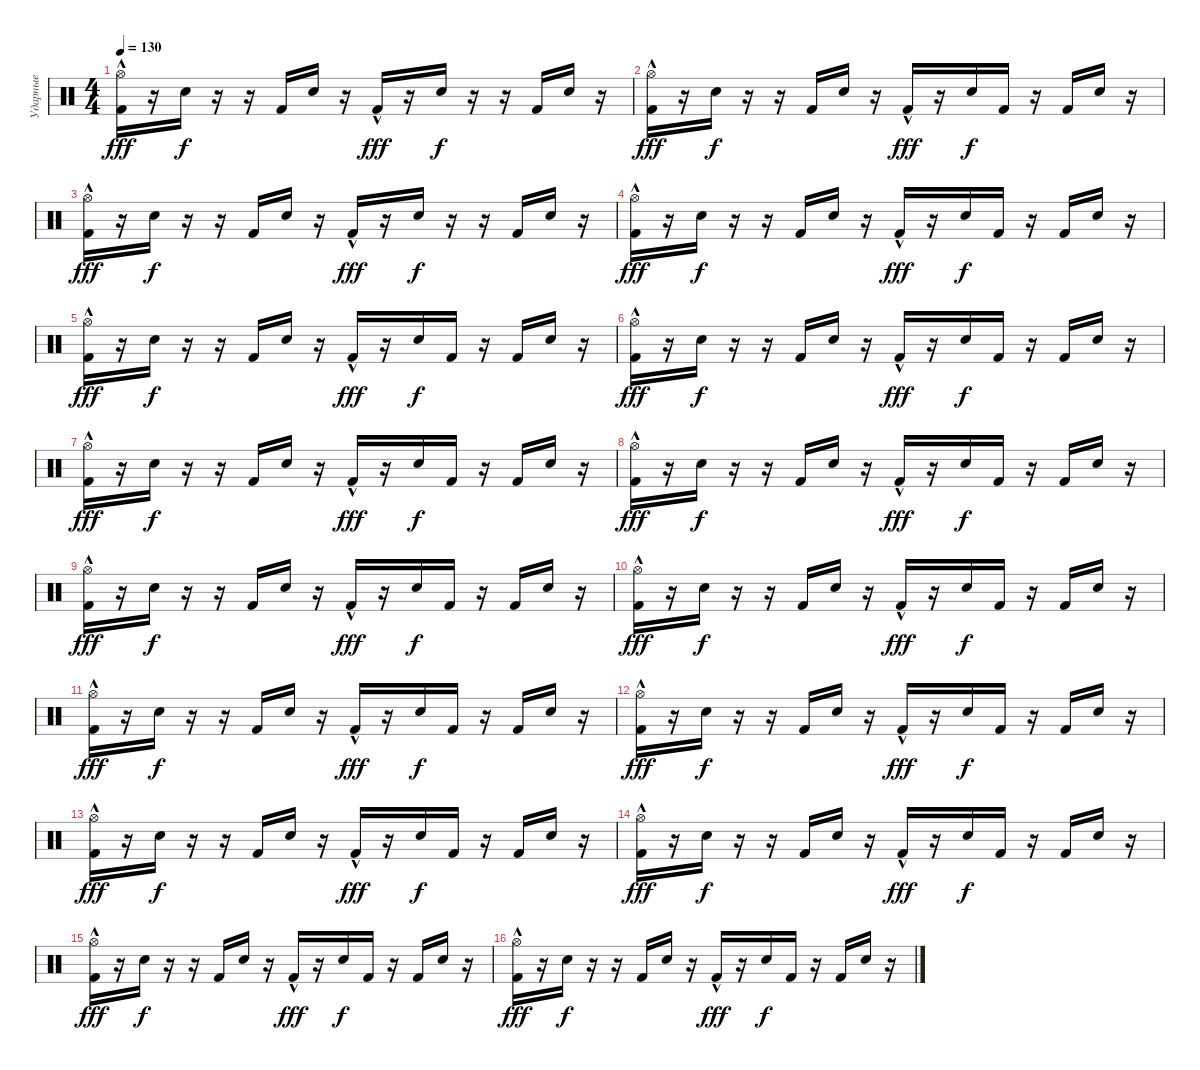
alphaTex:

\track ("Ударные" "Ударные") {instrument percussion}
\staff {score}
\articulation defaults
\ts (4 4)
\tempo 130
\clef neutral
\ks c
("Hi-Hat (open)" "Kick (hit) 2"{hac}).16{dy fff} r.16 "Electric Snare (hit)".16{dy f} r.16 r.16 "Kick (hit) 2".16 "Electric Snare (hit)".16 r.16 "Kick (hit) 2"{hac}.16{dy fff} r.16 "Electric Snare (hit)".16{dy f} r.16 r.16 "Kick (hit) 2".16 "Electric Snare (hit)".16 r.16 |
("Hi-Hat (open)" "Kick (hit) 2"{hac}).16{dy fff} r.16 "Electric Snare (hit)".16{dy f} r.16 r.16 "Kick (hit) 2".16 "Electric Snare (hit)".16 r.16 "Kick (hit) 2"{hac}.16{dy fff} r.16 "Electric Snare (hit)".16{dy f} "Kick (hit) 2".16 r.16 "Kick (hit) 2".16 "Electric Snare (hit)".16 r.16 |
("Hi-Hat (open)" "Kick (hit) 2"{hac}).16{dy fff} r.16 "Electric Snare (hit)".16{dy f} r.16 r.16 "Kick (hit) 2".16 "Electric Snare (hit)".16 r.16 "Kick (hit) 2"{hac}.16{dy fff} r.16 "Electric Snare (hit)".16{dy f} r.16 r.16 "Kick (hit) 2".16 "Electric Snare (hit)".16 r.16 |
("Hi-Hat (open)" "Kick (hit) 2"{hac}).16{dy fff} r.16 "Electric Snare (hit)".16{dy f} r.16 r.16 "Kick (hit) 2".16 "Electric Snare (hit)".16 r.16 "Kick (hit) 2"{hac}.16{dy fff} r.16 "Electric Snare (hit)".16{dy f} "Kick (hit) 2".16 r.16 "Kick (hit) 2".16 "Electric Snare (hit)".16 r.16 |
("Hi-Hat (open)" "Kick (hit) 2"{hac}).16{dy fff} r.16 "Electric Snare (hit)".16{dy f} r.16 r.16 "Kick (hit) 2".16 "Electric Snare (hit)".16 r.16 "Kick (hit) 2"{hac}.16{dy fff} r.16 "Electric Snare (hit)".16{dy f} "Kick (hit) 2".16 r.16 "Kick (hit) 2".16 "Electric Snare (hit)".16 r.16 |
("Hi-Hat (open)" "Kick (hit) 2"{hac}).16{dy fff} r.16 "Electric Snare (hit)".16{dy f} r.16 r.16 "Kick (hit) 2".16 "Electric Snare (hit)".16 r.16 "Kick (hit) 2"{hac}.16{dy fff} r.16 "Electric Snare (hit)".16{dy f} "Kick (hit) 2".16 r.16 "Kick (hit) 2".16 "Electric Snare (hit)".16 r.16 |
("Hi-Hat (open)" "Kick (hit) 2"{hac}).16{dy fff} r.16 "Electric Snare (hit)".16{dy f} r.16 r.16 "Kick (hit) 2".16 "Electric Snare (hit)".16 r.16 "Kick (hit) 2"{hac}.16{dy fff} r.16 "Electric Snare (hit)".16{dy f} "Kick (hit) 2".16 r.16 "Kick (hit) 2".16 "Electric Snare (hit)".16 r.16 |
("Hi-Hat (open)" "Kick (hit) 2"{hac}).16{dy fff} r.16 "Electric Snare (hit)".16{dy f} r.16 r.16 "Kick (hit) 2".16 "Electric Snare (hit)".16 r.16 "Kick (hit) 2"{hac}.16{dy fff} r.16 "Electric Snare (hit)".16{dy f} "Kick (hit) 2".16 r.16 "Kick (hit) 2".16 "Electric Snare (hit)".16 r.16 |
("Hi-Hat (open)" "Kick (hit) 2"{hac}).16{dy fff} r.16 "Electric Snare (hit)".16{dy f} r.16 r.16 "Kick (hit) 2".16 "Electric Snare (hit)".16 r.16 "Kick (hit) 2"{hac}.16{dy fff} r.16 "Electric Snare (hit)".16{dy f} "Kick (hit) 2".16 r.16 "Kick (hit) 2".16 "Electric Snare (hit)".16 r.16 |
("Hi-Hat (open)" "Kick (hit) 2"{hac}).16{dy fff} r.16 "Electric Snare (hit)".16{dy f} r.16 r.16 "Kick (hit) 2".16 "Electric Snare (hit)".16 r.16 "Kick (hit) 2"{hac}.16{dy fff} r.16 "Electric Snare (hit)".16{dy f} "Kick (hit) 2".16 r.16 "Kick (hit) 2".16 "Electric Snare (hit)".16 r.16 |
("Hi-Hat (open)" "Kick (hit) 2"{hac}).16{dy fff} r.16 "Electric Snare (hit)".16{dy f} r.16 r.16 "Kick (hit) 2".16 "Electric Snare (hit)".16 r.16 "Kick (hit) 2"{hac}.16{dy fff} r.16 "Electric Snare (hit)".16{dy f} "Kick (hit) 2".16 r.16 "Kick (hit) 2".16 "Electric Snare (hit)".16 r.16 |
("Hi-Hat (open)" "Kick (hit) 2"{hac}).16{dy fff} r.16 "Electric Snare (hit)".16{dy f} r.16 r.16 "Kick (hit) 2".16 "Electric Snare (hit)".16 r.16 "Kick (hit) 2"{hac}.16{dy fff} r.16 "Electric Snare (hit)".16{dy f} "Kick (hit) 2".16 r.16 "Kick (hit) 2".16 "Electric Snare (hit)".16 r.16 |
("Hi-Hat (open)" "Kick (hit) 2"{hac}).16{dy fff} r.16 "Electric Snare (hit)".16{dy f} r.16 r.16 "Kick (hit) 2".16 "Electric Snare (hit)".16 r.16 "Kick (hit) 2"{hac}.16{dy fff} r.16 "Electric Snare (hit)".16{dy f} "Kick (hit) 2".16 r.16 "Kick (hit) 2".16 "Electric Snare (hit)".16 r.16 |
("Hi-Hat (open)" "Kick (hit) 2"{hac}).16{dy fff} r.16 "Electric Snare (hit)".16{dy f} r.16 r.16 "Kick (hit) 2".16 "Electric Snare (hit)".16 r.16 "Kick (hit) 2"{hac}.16{dy fff} r.16 "Electric Snare (hit)".16{dy f} "Kick (hit) 2".16 r.16 "Kick (hit) 2".16 "Electric Snare (hit)".16 r.16 |
("Hi-Hat (open)" "Kick (hit) 2"{hac}).16{dy fff} r.16 "Electric Snare (hit)".16{dy f} r.16 r.16 "Kick (hit) 2".16 "Electric Snare (hit)".16 r.16 "Kick (hit) 2"{hac}.16{dy fff} r.16 "Electric Snare (hit)".16{dy f} "Kick (hit) 2".16 r.16 "Kick (hit) 2".16 "Electric Snare (hit)".16 r.16 |
("Hi-Hat (open)" "Kick (hit) 2"{hac}).16{dy fff} r.16 "Electric Snare (hit)".16{dy f} r.16 r.16 "Kick (hit) 2".16 "Electric Snare (hit)".16 r.16 "Kick (hit) 2"{hac}.16{dy fff} r.16 "Electric Snare (hit)".16{dy f} "Kick (hit) 2".16 r.16 "Kick (hit) 2".16 "Electric Snare (hit)".16 r.16
